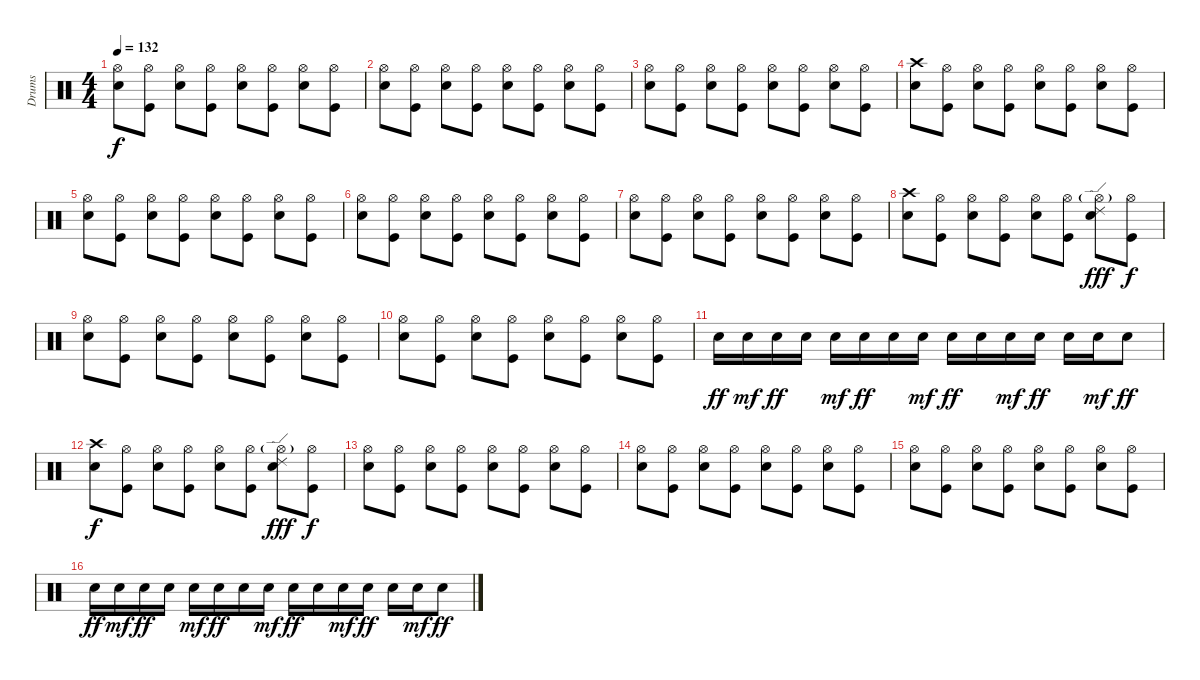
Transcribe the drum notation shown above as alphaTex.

\track ("Drums" "Drums") {instrument percussion}
\staff {score}
\articulation defaults
\ts (4 4)
\tempo 132
\clef neutral
\ks c
("Hi-Hat (open)" "Snare (hit) 2").8{dy f} ("Hi-Hat (open)" "Kick (hit)").8 ("Hi-Hat (open)" "Snare (hit) 2").8 ("Hi-Hat (open)" "Kick (hit)").8 ("Hi-Hat (open)" "Snare (hit) 2").8 ("Hi-Hat (open)" "Kick (hit)").8 ("Hi-Hat (open)" "Snare (hit) 2").8 ("Hi-Hat (open)" "Kick (hit)").8 |
("Hi-Hat (open)" "Snare (hit) 2").8 ("Hi-Hat (open)" "Kick (hit)").8 ("Hi-Hat (open)" "Snare (hit) 2").8 ("Hi-Hat (open)" "Kick (hit)").8 ("Hi-Hat (open)" "Snare (hit) 2").8 ("Hi-Hat (open)" "Kick (hit)").8 ("Hi-Hat (open)" "Snare (hit) 2").8 ("Hi-Hat (open)" "Kick (hit)").8 |
("Hi-Hat (open)" "Snare (hit) 2").8 ("Hi-Hat (open)" "Kick (hit)").8 ("Hi-Hat (open)" "Snare (hit) 2").8 ("Hi-Hat (open)" "Kick (hit)").8 ("Hi-Hat (open)" "Snare (hit) 2").8 ("Hi-Hat (open)" "Kick (hit)").8 ("Hi-Hat (open)" "Snare (hit) 2").8 ("Hi-Hat (open)" "Kick (hit)").8 |
("Crash high (hit)" "Snare (hit) 2").8 ("Hi-Hat (open)" "Kick (hit)").8 ("Hi-Hat (open)" "Snare (hit) 2").8 ("Hi-Hat (open)" "Kick (hit)").8 ("Hi-Hat (open)" "Snare (hit) 2").8 ("Hi-Hat (open)" "Kick (hit)").8 ("Hi-Hat (open)" "Snare (hit) 2").8 ("Hi-Hat (open)" "Kick (hit)").8 |
("Hi-Hat (open)" "Snare (hit) 2").8 ("Hi-Hat (open)" "Kick (hit)").8 ("Hi-Hat (open)" "Snare (hit) 2").8 ("Hi-Hat (open)" "Kick (hit)").8 ("Hi-Hat (open)" "Snare (hit) 2").8 ("Hi-Hat (open)" "Kick (hit)").8 ("Hi-Hat (open)" "Snare (hit) 2").8 ("Hi-Hat (open)" "Kick (hit)").8 |
("Hi-Hat (open)" "Snare (hit) 2").8 ("Hi-Hat (open)" "Kick (hit)").8 ("Hi-Hat (open)" "Snare (hit) 2").8 ("Hi-Hat (open)" "Kick (hit)").8 ("Hi-Hat (open)" "Snare (hit) 2").8 ("Hi-Hat (open)" "Kick (hit)").8 ("Hi-Hat (open)" "Snare (hit) 2").8 ("Hi-Hat (open)" "Kick (hit)").8 |
("Hi-Hat (open)" "Snare (hit) 2").8 ("Hi-Hat (open)" "Kick (hit)").8 ("Hi-Hat (open)" "Snare (hit) 2").8 ("Hi-Hat (open)" "Kick (hit)").8 ("Hi-Hat (open)" "Snare (hit) 2").8 ("Hi-Hat (open)" "Kick (hit)").8 ("Hi-Hat (open)" "Snare (hit) 2").8 ("Hi-Hat (open)" "Kick (hit)").8 |
("Crash high (hit)" "Snare (hit) 2").8 ("Hi-Hat (open)" "Kick (hit)").8 ("Hi-Hat (open)" "Snare (hit) 2").8 ("Hi-Hat (open)" "Kick (hit)").8 ("Hi-Hat (open)" "Snare (hit) 2").8 ("Hi-Hat (open)" "Kick (hit)").8 ("Hi-Hat (open)"{g} "Ride (edge) 2" "Snare (hit) 2").8{dy fff} ("Hi-Hat (open)" "Kick (hit)").8{dy f} |
("Hi-Hat (open)" "Snare (hit) 2").8 ("Hi-Hat (open)" "Kick (hit)").8 ("Hi-Hat (open)" "Snare (hit) 2").8 ("Hi-Hat (open)" "Kick (hit)").8 ("Hi-Hat (open)" "Snare (hit) 2").8 ("Hi-Hat (open)" "Kick (hit)").8 ("Hi-Hat (open)" "Snare (hit) 2").8 ("Hi-Hat (open)" "Kick (hit)").8 |
("Hi-Hat (open)" "Snare (hit) 2").8 ("Hi-Hat (open)" "Kick (hit)").8 ("Hi-Hat (open)" "Snare (hit) 2").8 ("Hi-Hat (open)" "Kick (hit)").8 ("Hi-Hat (open)" "Snare (hit) 2").8 ("Hi-Hat (open)" "Kick (hit)").8 ("Hi-Hat (open)" "Snare (hit) 2").8 ("Hi-Hat (open)" "Kick (hit)").8 |
"Snare (hit) 2".16{dy ff} "Snare (hit) 2".16{dy mf} "Snare (hit) 2".16{dy ff} "Snare (hit) 2".16 "Snare (hit) 2".16{dy mf} "Snare (hit) 2".16{dy ff} "Snare (hit) 2".16 "Snare (hit) 2".16{dy mf} "Snare (hit) 2".16{dy ff} "Snare (hit) 2".16 "Snare (hit) 2".16{dy mf} "Snare (hit) 2".16{dy ff} "Snare (hit) 2".16 "Snare (hit) 2".16{dy mf} "Snare (hit) 2".8{dy ff} |
("Crash high (hit)" "Snare (hit) 2").8{dy f} ("Hi-Hat (open)" "Kick (hit)").8 ("Hi-Hat (open)" "Snare (hit) 2").8 ("Hi-Hat (open)" "Kick (hit)").8 ("Hi-Hat (open)" "Snare (hit) 2").8 ("Hi-Hat (open)" "Kick (hit)").8 ("Hi-Hat (open)"{g} "Ride (edge) 2" "Snare (hit) 2").8{dy fff} ("Hi-Hat (open)" "Kick (hit)").8{dy f} |
("Hi-Hat (open)" "Snare (hit) 2").8 ("Hi-Hat (open)" "Kick (hit)").8 ("Hi-Hat (open)" "Snare (hit) 2").8 ("Hi-Hat (open)" "Kick (hit)").8 ("Hi-Hat (open)" "Snare (hit) 2").8 ("Hi-Hat (open)" "Kick (hit)").8 ("Hi-Hat (open)" "Snare (hit) 2").8 ("Hi-Hat (open)" "Kick (hit)").8 |
("Hi-Hat (open)" "Snare (hit) 2").8 ("Hi-Hat (open)" "Kick (hit)").8 ("Hi-Hat (open)" "Snare (hit) 2").8 ("Hi-Hat (open)" "Kick (hit)").8 ("Hi-Hat (open)" "Snare (hit) 2").8 ("Hi-Hat (open)" "Kick (hit)").8 ("Hi-Hat (open)" "Snare (hit) 2").8 ("Hi-Hat (open)" "Kick (hit)").8 |
("Hi-Hat (open)" "Snare (hit) 2").8 ("Hi-Hat (open)" "Kick (hit)").8 ("Hi-Hat (open)" "Snare (hit) 2").8 ("Hi-Hat (open)" "Kick (hit)").8 ("Hi-Hat (open)" "Snare (hit) 2").8 ("Hi-Hat (open)" "Kick (hit)").8 ("Hi-Hat (open)" "Snare (hit) 2").8 ("Hi-Hat (open)" "Kick (hit)").8 |
"Snare (hit) 2".16{dy ff} "Snare (hit) 2".16{dy mf} "Snare (hit) 2".16{dy ff} "Snare (hit) 2".16 "Snare (hit) 2".16{dy mf} "Snare (hit) 2".16{dy ff} "Snare (hit) 2".16 "Snare (hit) 2".16{dy mf} "Snare (hit) 2".16{dy ff} "Snare (hit) 2".16 "Snare (hit) 2".16{dy mf} "Snare (hit) 2".16{dy ff} "Snare (hit) 2".16 "Snare (hit) 2".16{dy mf} "Snare (hit) 2".8{dy ff}
